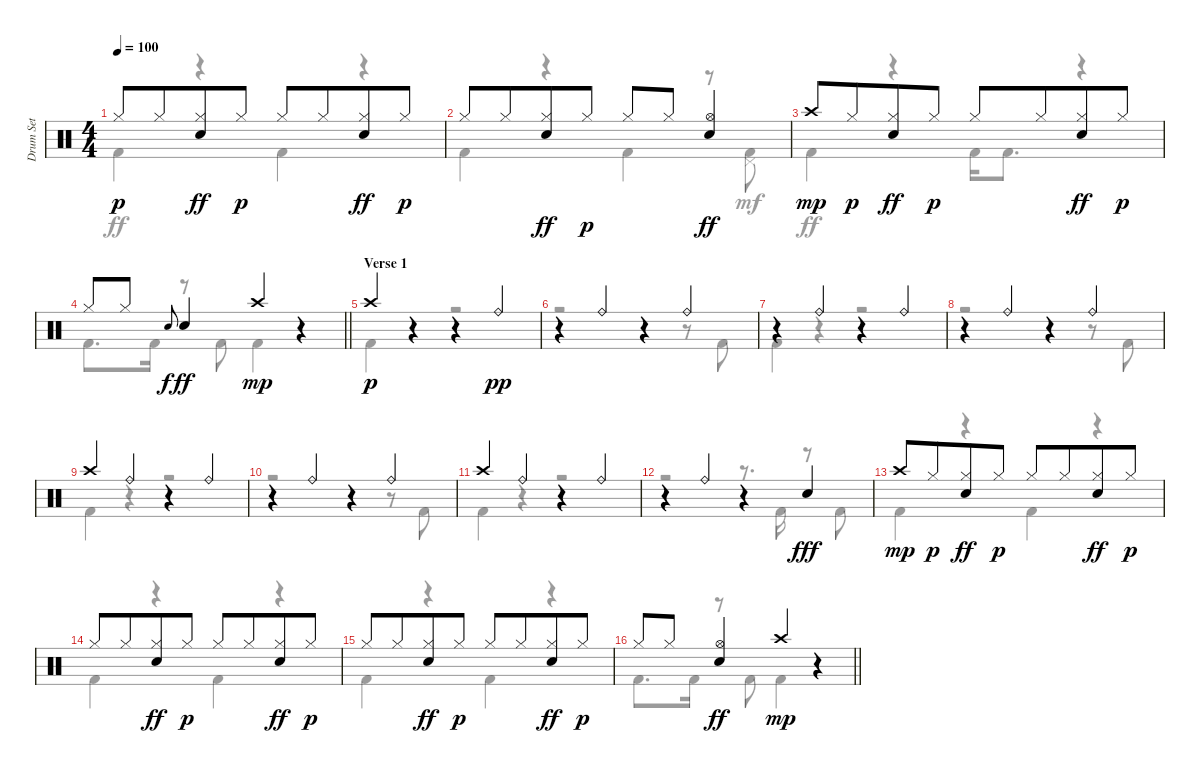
\track ("Drum Set" "Drum Set") {instrument percussion}
\staff {score}
\articulation defaults
\voice
\ts (4 4)
\tempo 100
\clef neutral
\ks c "Hi-Hat (closed)".8{dy p} "Hi-Hat (closed)".8{beam merge}
("Hi-Hat (closed)" "Electric Snare (hit)").8{dy ff} "Hi-Hat (closed)".8{dy p} "Hi-Hat (closed)".8 "Hi-Hat (closed)".8{beam merge} ("Hi-Hat (closed)" "Electric Snare (hit)").8{dy ff} "Hi-Hat (closed)".8{dy p} |
"Hi-Hat (closed)".8 "Hi-Hat (closed)".8{beam merge} ("Hi-Hat (closed)" "Electric Snare (hit)").8{dy ff} "Hi-Hat (closed)".8{dy p} "Hi-Hat (closed)".8 "Hi-Hat (closed)".8{beam merge} ("Hi-Hat (open)" "Electric Snare (hit)").4{dy ff} |
"Crash high (hit)".8{dy mp} "Hi-Hat (closed)".8{dy p beam merge} ("Hi-Hat (closed)" "Electric Snare (hit)").8{dy ff} "Hi-Hat (closed)".8{dy p} "Hi-Hat (closed)".8 "Hi-Hat (closed)".8{beam merge} ("Hi-Hat (closed)" "Electric Snare (hit)").8{dy ff} "Hi-Hat (closed)".8{dy p} |
\barLineRight lightlight "Hi-Hat (closed)".8 "Hi-Hat (closed)".8 "Electric Snare (hit)".8{gr onbeat dy f} "Electric Snare (hit)".4{dy ff} "Crash high (hit)".4{dy mp}
r.4 |
\section ("" "Verse 1")
"Crash high (hit)".4{dy p} r.4 r.4 "Ride (bell)".4{dy pp} |
r.4 "Ride (bell)".4 r.4 "Ride (bell)".4 |
r.4 "Ride (bell)".4 r.4 "Ride (bell)".4 |
r.4 "Ride (bell)".4 r.4 "Ride (bell)".4 |
"Crash high (hit)".4 "Ride (bell)".4 r.4 "Ride (bell)".4 |
r.4 "Ride (bell)".4 r.4 "Ride (bell)".4 |
"Crash high (hit)".4 "Ride (bell)".4 r.4 "Ride (bell)".4 |
r.4 "Ride (bell)".4 r.4 "Electric Snare (hit)".4{dy fff} |
"Crash high (hit)".8{dy mp} "Hi-Hat (closed)".8{dy p beam merge} ("Hi-Hat (closed)" "Electric Snare (hit)").8{dy ff} "Hi-Hat (closed)".8{dy p} "Hi-Hat (closed)".8 "Hi-Hat (closed)".8{beam merge} ("Hi-Hat (closed)" "Electric Snare (hit)").8{dy ff} "Hi-Hat (closed)".8{dy p} |
"Hi-Hat (closed)".8 "Hi-Hat (closed)".8{beam merge} ("Hi-Hat (closed)" "Electric Snare (hit)").8{dy ff} "Hi-Hat (closed)".8{dy p} "Hi-Hat (closed)".8 "Hi-Hat (closed)".8{beam merge} ("Hi-Hat (closed)" "Electric Snare (hit)").8{dy ff} "Hi-Hat (closed)".8{dy p} |
"Hi-Hat (closed)".8 "Hi-Hat (closed)".8{beam merge} ("Hi-Hat (closed)" "Electric Snare (hit)").8{dy ff} "Hi-Hat (closed)".8{dy p} "Hi-Hat (closed)".8 "Hi-Hat (closed)".8{beam merge} ("Hi-Hat (closed)" "Electric Snare (hit)").8{dy ff} "Hi-Hat (closed)".8{dy p} |
\barLineRight lightlight "Hi-Hat (closed)".8 "Hi-Hat (closed)".8{beam merge}
("Hi-Hat (open)" "Electric Snare (hit)").4{dy ff} "Crash high (hit)".4{dy mp} r.4
\voice
\clef neutral
\ottava regular
\simile none
\ks c "Kick (hit) 2".4{dy ff}
r.4 "Kick (hit) 2".4 r.4 |
"Kick (hit) 2".4 r.4 "Kick (hit) 2".4 r.8 ("Pedal Hi-Hat (hit)" "Kick (hit) 2").8{dy mf} |
"Kick (hit) 2".4{dy ff} r.4 "Kick (hit) 2".16 "Kick (hit) 2".8{d} r.4 |
\barLineRight lightlight "Kick (hit) 2".8{d} "Kick (hit) 2".16
r.8 "Kick (hit) 2".8 "Kick (hit) 2".4 r.4 |
"Kick (hit) 2".4 r.4 r.2 |
r.2 r.4 r.8 "Kick (hit) 2".8 |
"Kick (hit) 2".4 r.4 r.2 |
r.2 r.4 r.8 "Kick (hit) 2".8 |
"Kick (hit) 2".4 r.4 r.2 |
r.2 r.4 r.8 "Kick (hit) 2".8 |
"Kick (hit) 2".4 r.4 r.2 |
r.2 r.8{d} "Kick (hit) 2".16 r.8 "Kick (hit) 2".8 |
"Kick (hit) 2".4 r.4 "Kick (hit) 2".4 r.4 |
"Kick (hit) 2".4 r.4 "Kick (hit) 2".4 r.4 |
"Kick (hit) 2".4 r.4 "Kick (hit) 2".4 r.4 |
\barLineRight lightlight "Kick (hit) 2".8{d} "Kick (hit) 2".16
r.8 "Kick (hit) 2".8 "Kick (hit) 2".4 r.4
